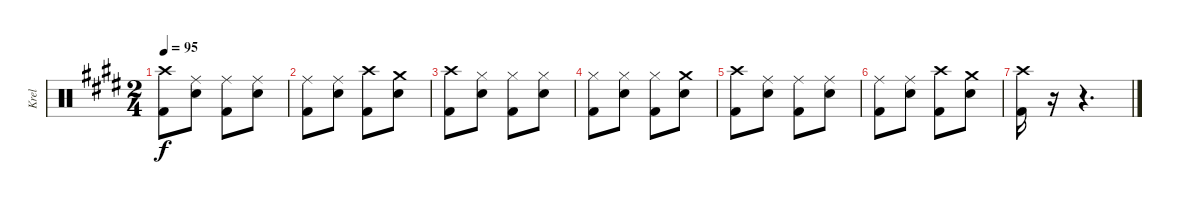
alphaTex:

\track ("Krel" "Krel") {instrument percussion}
\staff {score}
\articulation defaults
\ts (2 4)
\tempo 95
\clef neutral
\ks e
("Crash high (hit)" "Kick (hit) 2").8{dy f} ("Ride (middle)" "Snare (hit) 2").8 ("Ride (middle)" "Kick (hit) 2").8 ("Ride (middle)" "Snare (hit) 2").8 |
("Ride (middle)" "Kick (hit) 2").8 ("Ride (middle)" "Snare (hit) 2").8 ("Crash high (hit)" "Kick (hit) 2").8 ("Crash medium (hit)" "Snare (hit) 2").8 |
("Crash high (hit)" "Kick (hit) 2").8 ("Hi-Hat (closed)" "Snare (hit) 2").8 ("Hi-Hat (closed)" "Kick (hit) 2").8 ("Hi-Hat (closed)" "Snare (hit) 2").8 |
("Hi-Hat (closed)" "Kick (hit) 2").8 ("Hi-Hat (closed)" "Snare (hit) 2").8 ("Hi-Hat (closed)" "Kick (hit) 2").8 ("Crash medium (hit)" "Snare (hit) 2").8 |
("Crash high (hit)" "Kick (hit) 2").8 ("Ride (middle)" "Snare (hit) 2").8 ("Ride (middle)" "Kick (hit) 2").8 ("Ride (middle)" "Snare (hit) 2").8 |
("Ride (middle)" "Kick (hit) 2").8 ("Ride (middle)" "Snare (hit) 2").8 ("Crash high (hit)" "Kick (hit) 2").8 ("Crash medium (hit)" "Snare (hit) 2").8 |
("Crash high (hit)" "Kick (hit) 2").16 r.16 r.4{d}
